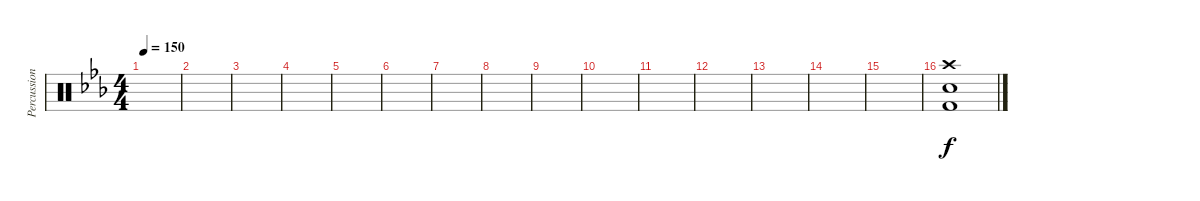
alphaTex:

\track ("Percussion" "Percussion") {instrument percussion}
\staff {score}
\articulation defaults
\ts (4 4)
\tempo 150
\clef neutral
\ks cminor
|
|
|
|
|
|
|
|
|
|
|
|
|
|
|
("Crash high (hit)" "Snare (hit) 2" "Kick (hit) 2").1{volume 12}
